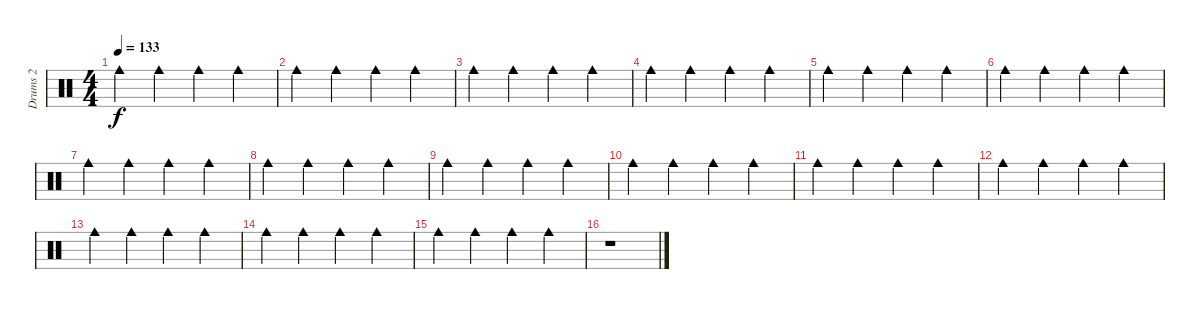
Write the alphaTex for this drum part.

\track ("Drums 2" "Drums 2") {instrument percussion}
\staff {score}
\articulation defaults
\ts (4 4)
\tempo 133
\clef neutral
\ks c "Cowbell medium (hit)".4{dy f} "Cowbell medium (hit)".4 "Cowbell medium (hit)".4 "Cowbell medium (hit)".4
|
"Cowbell medium (hit)".4 "Cowbell medium (hit)".4 "Cowbell medium (hit)".4 "Cowbell medium (hit)".4 |
"Cowbell medium (hit)".4 "Cowbell medium (hit)".4 "Cowbell medium (hit)".4 "Cowbell medium (hit)".4 |
"Cowbell medium (hit)".4 "Cowbell medium (hit)".4 "Cowbell medium (hit)".4 "Cowbell medium (hit)".4 |
"Cowbell medium (hit)".4 "Cowbell medium (hit)".4 "Cowbell medium (hit)".4 "Cowbell medium (hit)".4 |
"Cowbell medium (hit)".4 "Cowbell medium (hit)".4 "Cowbell medium (hit)".4 "Cowbell medium (hit)".4 |
"Cowbell medium (hit)".4 "Cowbell medium (hit)".4 "Cowbell medium (hit)".4 "Cowbell medium (hit)".4 |
"Cowbell medium (hit)".4 "Cowbell medium (hit)".4 "Cowbell medium (hit)".4 "Cowbell medium (hit)".4 |
"Cowbell medium (hit)".4 "Cowbell medium (hit)".4 "Cowbell medium (hit)".4 "Cowbell medium (hit)".4 |
"Cowbell medium (hit)".4 "Cowbell medium (hit)".4 "Cowbell medium (hit)".4 "Cowbell medium (hit)".4 |
"Cowbell medium (hit)".4 "Cowbell medium (hit)".4 "Cowbell medium (hit)".4 "Cowbell medium (hit)".4 |
"Cowbell medium (hit)".4 "Cowbell medium (hit)".4 "Cowbell medium (hit)".4 "Cowbell medium (hit)".4 |
"Cowbell medium (hit)".4 "Cowbell medium (hit)".4 "Cowbell medium (hit)".4 "Cowbell medium (hit)".4 |
"Cowbell medium (hit)".4 "Cowbell medium (hit)".4 "Cowbell medium (hit)".4 "Cowbell medium (hit)".4 |
"Cowbell medium (hit)".4 "Cowbell medium (hit)".4 "Cowbell medium (hit)".4 "Cowbell medium (hit)".4 |
r.1
